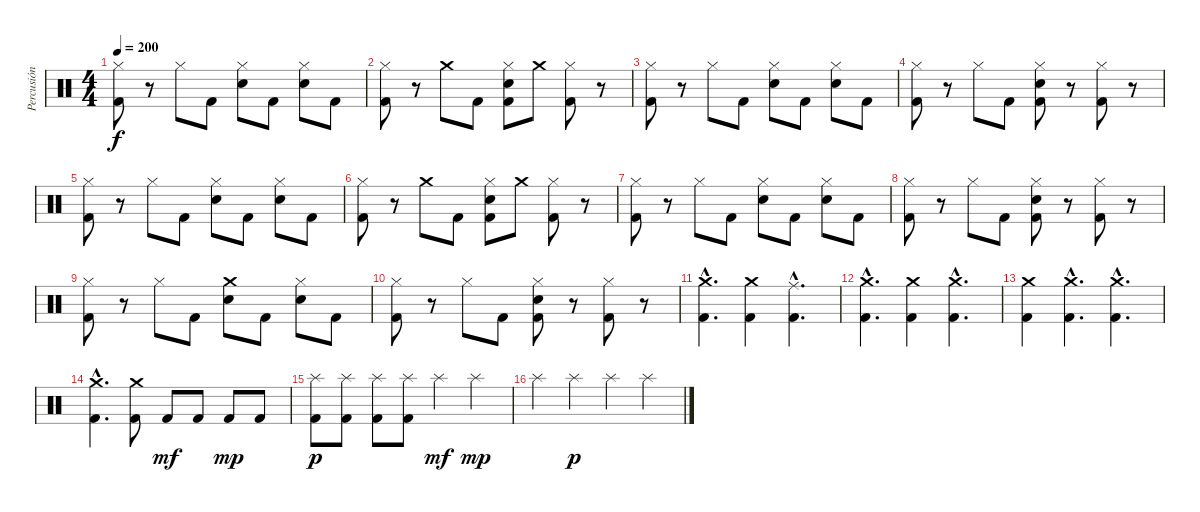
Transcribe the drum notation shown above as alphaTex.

\track ("Percusión" "Percusión") {instrument percussion}
\staff {score}
\articulation defaults
\ts (4 4)
\tempo 200
\clef neutral
\ks c
("Hi-Hat (closed)" "Kick (hit) 2").8{dy f} r.8 "Hi-Hat (closed)".8 "Kick (hit) 2".8 ("Hi-Hat (closed)" "Snare (hit) 2").8 "Kick (hit) 2".8 ("Hi-Hat (closed)" "Snare (hit) 2").8 "Kick (hit) 2".8 |
("Hi-Hat (closed)" "Kick (hit) 2").8 r.8 "Crash medium (hit)".8 "Kick (hit) 2".8 ("Hi-Hat (closed)" "Snare (hit) 2" "Kick (hit) 2").8 "Crash medium (hit)".8 ("Hi-Hat (closed)" "Kick (hit) 2").8 r.8 |
("Hi-Hat (closed)" "Kick (hit) 2").8 r.8 "Hi-Hat (closed)".8 "Kick (hit) 2".8 ("Hi-Hat (closed)" "Snare (hit) 2").8 "Kick (hit) 2".8 ("Hi-Hat (closed)" "Snare (hit) 2").8 "Kick (hit) 2".8 |
("Hi-Hat (closed)" "Kick (hit) 2").8 r.8 "Hi-Hat (closed)".8 "Kick (hit) 2".8 ("Hi-Hat (closed)" "Snare (hit) 2" "Kick (hit) 2").8 r.8 ("Hi-Hat (closed)" "Kick (hit) 2").8 r.8 |
("Hi-Hat (closed)" "Kick (hit) 2").8 r.8 "Hi-Hat (closed)".8 "Kick (hit) 2".8 ("Hi-Hat (closed)" "Snare (hit) 2").8 "Kick (hit) 2".8 ("Hi-Hat (closed)" "Snare (hit) 2").8 "Kick (hit) 2".8 |
("Hi-Hat (closed)" "Kick (hit) 2").8 r.8 "Crash medium (hit)".8 "Kick (hit) 2".8 ("Hi-Hat (closed)" "Snare (hit) 2" "Kick (hit) 2").8 "Crash medium (hit)".8 ("Hi-Hat (closed)" "Kick (hit) 2").8 r.8 |
("Hi-Hat (closed)" "Kick (hit) 2").8 r.8 "Hi-Hat (closed)".8 "Kick (hit) 2".8 ("Hi-Hat (closed)" "Snare (hit) 2").8 "Kick (hit) 2".8 ("Hi-Hat (closed)" "Snare (hit) 2").8 "Kick (hit) 2".8 |
("Hi-Hat (closed)" "Kick (hit) 2").8 r.8 "Hi-Hat (closed)".8 "Kick (hit) 2".8 ("Hi-Hat (closed)" "Snare (hit) 2" "Kick (hit) 2").8 r.8 ("Hi-Hat (closed)" "Kick (hit) 2").8 r.8 |
("Hi-Hat (closed)" "Kick (hit) 2").8 r.8 "Hi-Hat (closed)".8 "Kick (hit) 2".8 ("Crash medium (hit)" "Snare (hit) 2").8 "Kick (hit) 2".8 ("Hi-Hat (closed)" "Snare (hit) 2").8 "Kick (hit) 2".8 |
("Hi-Hat (closed)" "Kick (hit) 2").8 r.8 "Hi-Hat (closed)".8 "Kick (hit) 2".8 ("Hi-Hat (closed)" "Snare (hit) 2" "Kick (hit) 2").8 r.8 ("Hi-Hat (closed)" "Kick (hit) 2").8 r.8 |
("Crash medium (hit)"{hac} "Kick (hit) 2"{hac}).4{d} ("Crash medium (hit)" "Kick (hit) 2").4 ("Ride (middle)"{hac} "Kick (hit) 2"{hac}).4{d} |
("Crash medium (hit)"{hac} "Kick (hit) 2"{hac}).4{d} ("Crash medium (hit)" "Kick (hit) 2").4 ("Crash medium (hit)"{hac} "Kick (hit) 2"{hac}).4{d} |
("Crash medium (hit)" "Kick (hit) 2").4 ("Crash medium (hit)"{hac} "Kick (hit) 2"{hac}).4{d} ("Crash medium (hit)"{hac} "Kick (hit) 2"{hac}).4{d} |
("Crash medium (hit)"{hac} "Kick (hit) 2"{hac}).4{d} ("Crash medium (hit)" "Kick (hit) 2").8 "Kick (hit) 2".8{dy mf} "Kick (hit) 2".8 "Kick (hit) 2".8{dy mp} "Kick (hit) 2".8 |
("Splash (hit)" "Kick (hit) 2").8{dy p} ("Splash (hit)" "Kick (hit) 2").8 ("Splash (hit)" "Kick (hit) 2").8 ("Splash (hit)" "Kick (hit) 2").8 "Splash (hit)".4{dy mf} "Splash (hit)".4{dy mp} |
"Splash (hit)".4 "Splash (hit)".4{dy p} "Splash (hit)".4 "Splash (hit)".4
